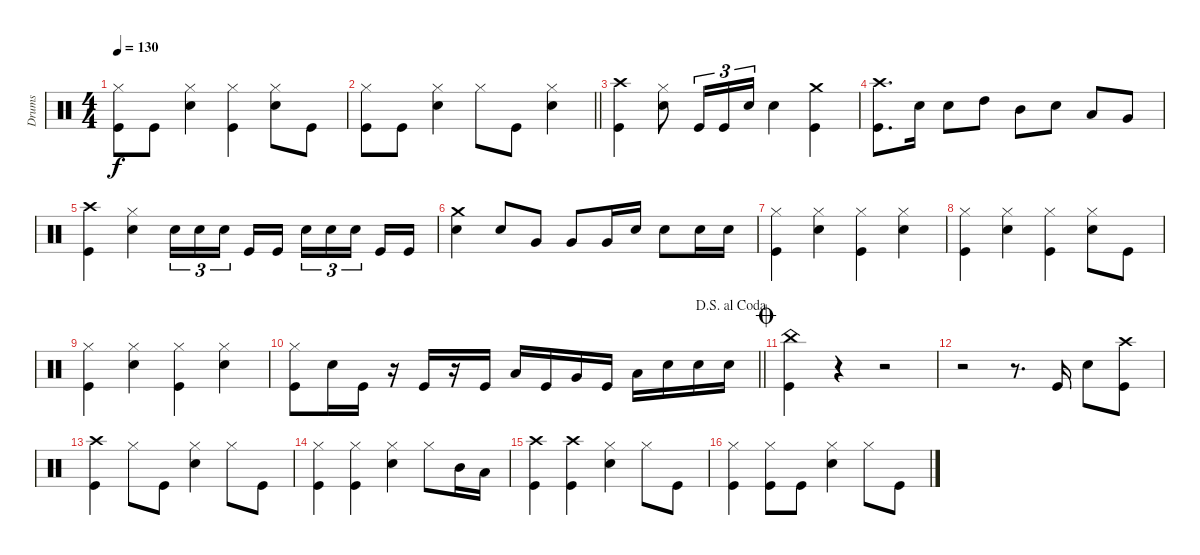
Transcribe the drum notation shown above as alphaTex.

\track ("Drums" "Drums") {instrument percussion}
\staff {score}
\articulation defaults
\ts (4 4)
\tempo 130
\clef neutral
\ks c
("Hi-Hat (closed)" "Kick (hit)").8{dy f} "Kick (hit)".8 ("Hi-Hat (closed)" "Snare (hit) 2").4 ("Hi-Hat (closed)" "Kick (hit)").4 ("Hi-Hat (closed)" "Snare (hit) 2").8 "Kick (hit)".8 |
\barLineRight lightlight
("Hi-Hat (closed)" "Kick (hit)").8 "Kick (hit)".8 ("Hi-Hat (closed)" "Snare (hit) 2").4 "Hi-Hat (closed)".8 "Kick (hit)".8 ("Hi-Hat (closed)" "Snare (hit) 2").4 |
("Crash high (hit)" "Kick (hit)").4 ("Hi-Hat (closed)" "Snare (hit) 2").8 "Kick (hit)".16{tu (3 2)} "Kick (hit)".16{tu (3 2)} "Snare (hit) 2".16{tu (3 2)} "Snare (hit) 2".4 ("Crash medium (hit)" "Kick (hit)").4 |
("Crash high (hit)" "Kick (hit)").8{d} "Snare (hit) 2".16 "Snare (hit) 2".8 "High Tom (hit)".8 "Mid Tom (hit)".8 "Snare (hit) 2".8 "Low Tom (hit)".8 "Very Low Tom (hit)".8 |
("Crash high (hit)" "Kick (hit)").4 ("Hi-Hat (closed)" "Snare (hit) 2").4 "Snare (hit) 2".16{tu (3 2)} "Snare (hit) 2".16{tu (3 2)} "Snare (hit) 2".16{tu (3 2) beam splitsecondary} "Kick (hit)".16 "Kick (hit)".16 "Snare (hit) 2".16{tu (3 2)} "Snare (hit) 2".16{tu (3 2)} "Snare (hit) 2".16{tu (3 2) beam splitsecondary} "Kick (hit)".16 "Kick (hit)".16 |
("Crash medium (hit)" "Snare (hit) 2").4 "Snare (hit) 2".8 "Very Low Tom (hit)".8 "Very Low Tom (hit)".8 "Very Low Tom (hit)".16 "Snare (hit) 2".16 "Snare (hit) 2".8 "Snare (hit) 2".16 "Snare (hit) 2".16 |
("Hi-Hat (closed)" "Kick (hit)").4 ("Hi-Hat (closed)" "Snare (hit) 2").4 ("Hi-Hat (closed)" "Kick (hit)").4 ("Hi-Hat (closed)" "Snare (hit) 2").4 |
("Hi-Hat (closed)" "Kick (hit)").4 ("Hi-Hat (closed)" "Snare (hit) 2").4 ("Hi-Hat (closed)" "Kick (hit)").4 ("Hi-Hat (closed)" "Snare (hit) 2").8 "Kick (hit)".8 |
("Hi-Hat (closed)" "Kick (hit)").4 ("Hi-Hat (closed)" "Snare (hit) 2").4 ("Hi-Hat (closed)" "Kick (hit)").4 ("Hi-Hat (closed)" "Snare (hit) 2").4 |
\jump dalsegnoalcoda
\barLineRight lightlight
("Hi-Hat (closed)" "Kick (hit)").8 "Snare (hit) 2".16 "Kick (hit)".16 r.16 "Kick (hit)".16 r.16 "Kick (hit)".16 "Low Tom (hit)".16 "Kick (hit)".16 "Very Low Tom (hit)".16 "Kick (hit)".16 "Low Tom (hit)".16 "Snare (hit) 2".16 "Snare (hit) 2".16 "Snare (hit) 2".16 |
\jump coda
("China (hit)" "Kick (hit)").4 r.4 r.2 |
r.2 r.8{d} "Kick (hit)".16 "Snare (hit) 2".8 ("Crash high (hit)" "Kick (hit)").8 |
("Crash high (hit)" "Kick (hit)").4 "Hi-Hat (closed)".8 "Kick (hit)".8 ("Hi-Hat (closed)" "Snare (hit) 2").4 "Hi-Hat (closed)".8 "Kick (hit)".8 |
("Hi-Hat (closed)" "Kick (hit)").4 ("Hi-Hat (closed)" "Kick (hit)").4 ("Hi-Hat (closed)" "Snare (hit) 2").4 "Hi-Hat (closed)".8 "Mid Tom (hit)".16 "Low Tom (hit)".16 |
("Crash high (hit)" "Kick (hit)").4 ("Crash high (hit)" "Kick (hit)").4 ("Hi-Hat (closed)" "Snare (hit) 2").4 "Hi-Hat (closed)".8 "Kick (hit)".8 |
("Hi-Hat (closed)" "Kick (hit)").4 ("Hi-Hat (closed)" "Kick (hit)").8 "Kick (hit)".8 ("Hi-Hat (closed)" "Snare (hit) 2").4 "Hi-Hat (closed)".8 "Kick (hit)".8
